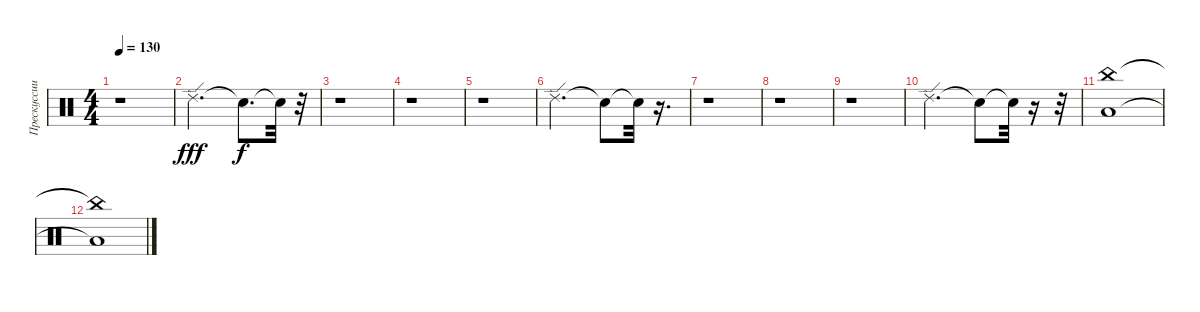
\track ("Прескуссии 2" "Прескуссии") {instrument percussion}
\staff {score}
\articulation defaults
\ts (4 4)
\tempo 130
\clef neutral
\ks c
r.1{dy f} |
"Ride (edge) 2".2{d dy fff} "Snare (hit)"{t}.8{d dy f} "Snare (hit)"{t}.32 r.32 |
r.1 |
r.1 |
r.1 |
"Ride (edge) 2".2{d} "Snare (hit)"{t}.8 "Snare (hit)"{t}.32 r.16{d} |
r.1 |
r.1 |
r.1 |
"Ride (edge) 2".2{d} "Snare (hit)"{t}.8 "Snare (hit)"{t}.32 r.16 r.32 |
("Low Floor Tom (hit)" "China (hit)").1 |
("Low Floor Tom (hit)"{t} "China (hit)"{t}).1
